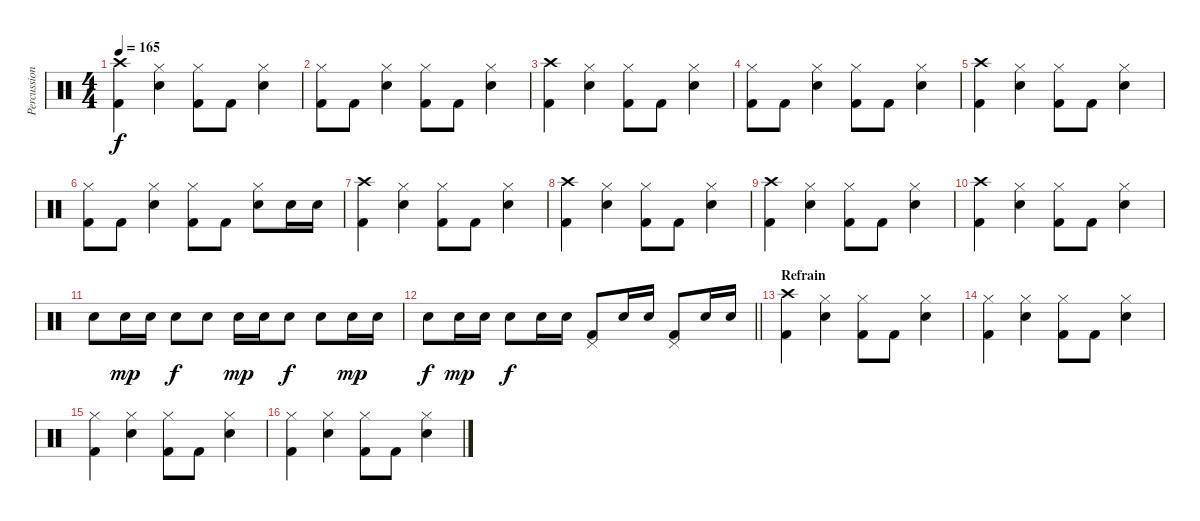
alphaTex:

\track ("Percussions" "Percussion") {instrument percussion}
\staff {score}
\articulation defaults
\ts (4 4)
\tempo 165
\clef neutral
\ks c
("Crash high (hit)" "Kick (hit) 2").4{dy f} ("Hi-Hat (closed)" "Electric Snare (hit)").4 ("Hi-Hat (closed)" "Kick (hit) 2").8 "Kick (hit) 2".8 ("Hi-Hat (closed)" "Electric Snare (hit)").4 |
("Hi-Hat (closed)" "Kick (hit) 2").8 "Kick (hit) 2".8 ("Hi-Hat (closed)" "Electric Snare (hit)").4 ("Hi-Hat (closed)" "Kick (hit) 2").8 "Kick (hit) 2".8 ("Hi-Hat (closed)" "Electric Snare (hit)").4 |
("Crash high (hit)" "Kick (hit) 2").4 ("Hi-Hat (closed)" "Electric Snare (hit)").4 ("Hi-Hat (closed)" "Kick (hit) 2").8 "Kick (hit) 2".8 ("Hi-Hat (closed)" "Electric Snare (hit)").4 |
("Hi-Hat (closed)" "Kick (hit) 2").8 "Kick (hit) 2".8 ("Hi-Hat (closed)" "Electric Snare (hit)").4 ("Hi-Hat (closed)" "Kick (hit) 2").8 "Kick (hit) 2".8 ("Hi-Hat (closed)" "Electric Snare (hit)").4 |
("Crash high (hit)" "Kick (hit) 2").4 ("Hi-Hat (closed)" "Electric Snare (hit)").4 ("Hi-Hat (closed)" "Kick (hit) 2").8 "Kick (hit) 2".8 ("Hi-Hat (closed)" "Electric Snare (hit)").4 |
("Hi-Hat (closed)" "Kick (hit) 2").8 "Kick (hit) 2".8 ("Hi-Hat (closed)" "Electric Snare (hit)").4 ("Hi-Hat (closed)" "Kick (hit) 2").8 "Kick (hit) 2".8 ("Hi-Hat (closed)" "Electric Snare (hit)").8 "Electric Snare (hit)".16 "Electric Snare (hit)".16 |
("Crash high (hit)" "Kick (hit) 2").4 ("Hi-Hat (closed)" "Electric Snare (hit)").4 ("Hi-Hat (closed)" "Kick (hit) 2").8 "Kick (hit) 2".8 ("Hi-Hat (closed)" "Electric Snare (hit)").4 |
("Crash high (hit)" "Kick (hit) 2").4 ("Hi-Hat (closed)" "Electric Snare (hit)").4 ("Hi-Hat (closed)" "Kick (hit) 2").8 "Kick (hit) 2".8 ("Hi-Hat (closed)" "Electric Snare (hit)").4 |
("Crash high (hit)" "Kick (hit) 2").4 ("Hi-Hat (closed)" "Electric Snare (hit)").4 ("Hi-Hat (closed)" "Kick (hit) 2").8 "Kick (hit) 2".8 ("Hi-Hat (closed)" "Electric Snare (hit)").4 |
("Crash high (hit)" "Kick (hit) 2").4 ("Hi-Hat (closed)" "Electric Snare (hit)").4 ("Hi-Hat (closed)" "Kick (hit) 2").8 "Kick (hit) 2".8 ("Hi-Hat (closed)" "Electric Snare (hit)").4 |
"Electric Snare (hit)".8 "Electric Snare (hit)".16{dy mp} "Electric Snare (hit)".16 "Electric Snare (hit)".8{dy f} "Electric Snare (hit)".8 "Electric Snare (hit)".16{dy mp} "Electric Snare (hit)".16 "Electric Snare (hit)".8{dy f} "Electric Snare (hit)".8 "Electric Snare (hit)".16{dy mp} "Electric Snare (hit)".16 |
\barLineRight lightlight "Electric Snare (hit)".8{dy f} "Electric Snare (hit)".16{dy mp} "Electric Snare (hit)".16 "Electric Snare (hit)".8{dy f} "Electric Snare (hit)".16 "Electric Snare (hit)".16
("Pedal Hi-Hat (hit)" "Kick (hit) 2").8 "Electric Snare (hit)".16 "Electric Snare (hit)".16 ("Pedal Hi-Hat (hit)" "Kick (hit) 2").8 "Electric Snare (hit)".16 "Electric Snare (hit)".16 |
\section ("" "Refrain")
("Crash high (hit)" "Kick (hit) 2").4 ("Hi-Hat (closed)" "Electric Snare (hit)").4 ("Hi-Hat (closed)" "Kick (hit) 2").8 "Kick (hit) 2".8 ("Hi-Hat (closed)" "Electric Snare (hit)").4 |
("Hi-Hat (closed)" "Kick (hit) 2").4 ("Hi-Hat (closed)" "Electric Snare (hit)").4 ("Hi-Hat (closed)" "Kick (hit) 2").8 "Kick (hit) 2".8 ("Hi-Hat (closed)" "Electric Snare (hit)").4 |
("Hi-Hat (closed)" "Kick (hit) 2").4 ("Hi-Hat (closed)" "Electric Snare (hit)").4 ("Hi-Hat (closed)" "Kick (hit) 2").8 "Kick (hit) 2".8 ("Hi-Hat (closed)" "Electric Snare (hit)").4 |
("Hi-Hat (closed)" "Kick (hit) 2").4 ("Hi-Hat (closed)" "Electric Snare (hit)").4 ("Hi-Hat (closed)" "Kick (hit) 2").8 "Kick (hit) 2".8 ("Hi-Hat (closed)" "Electric Snare (hit)").4
